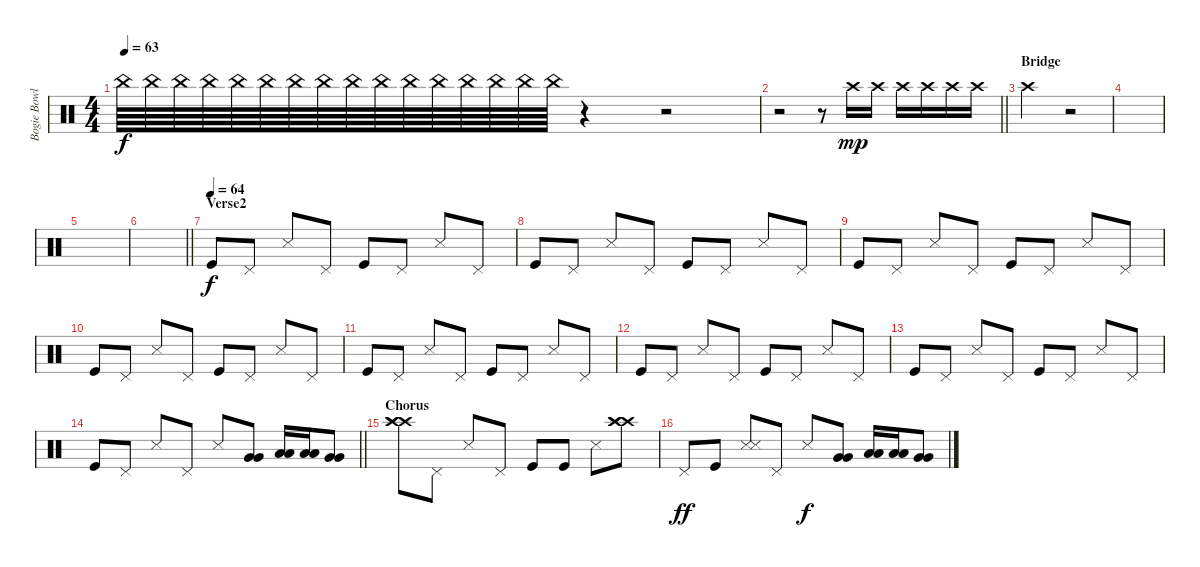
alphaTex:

\track ("Bogie Bowles - Drums" "Bogie Bowl") {instrument percussion}
\staff {score}
\articulation defaults
\ts (4 4)
\tempo 63
\clef neutral
\ks c "China (hit)".64{dy f} "China (hit)".64 "China (hit)".64 "China (hit)".64 "China (hit)".64 "China (hit)".64 "China (hit)".64 "China (hit)".64 "China (hit)".64{volume 0} "China (hit)".64 "China (hit)".64 "China (hit)".64 "China (hit)".64 "China (hit)".64 "China (hit)".64 "China (hit)".64
r.4 r.2 |
\barLineRight lightlight
r.2{volume 0} r.8{volume 13} "Crash high (hit)".16{dy mp} "Crash high (hit)".16 "Crash high (hit)".16 "Crash high (hit)".16 "Crash high (hit)".16 "Crash high (hit)".16 |
\section ("" "Bridge")
"Crash high (hit)".2 r.2 |
|
|
\barLineRight lightlight
|
\section ("" "Verse2")
\tempo (64)
"Kick (hit)".8{dy f} "Pedal Hi-Hat (hit)".8 "Snare (side stick) 3".8 "Pedal Hi-Hat (hit)".8 "Kick (hit)".8 "Pedal Hi-Hat (hit)".8 "Snare (side stick) 3".8 "Pedal Hi-Hat (hit)".8 |
"Kick (hit)".8 "Pedal Hi-Hat (hit)".8 "Snare (side stick) 3".8 "Pedal Hi-Hat (hit)".8 "Kick (hit)".8 "Pedal Hi-Hat (hit)".8 "Snare (side stick) 3".8 "Pedal Hi-Hat (hit)".8 |
"Kick (hit)".8 "Pedal Hi-Hat (hit)".8 "Snare (side stick) 3".8 "Pedal Hi-Hat (hit)".8 "Kick (hit)".8 "Pedal Hi-Hat (hit)".8 "Snare (side stick) 3".8 "Pedal Hi-Hat (hit)".8 |
"Kick (hit)".8 "Pedal Hi-Hat (hit)".8 "Snare (side stick) 3".8 "Pedal Hi-Hat (hit)".8 "Kick (hit)".8 "Pedal Hi-Hat (hit)".8 "Snare (side stick) 3".8 "Pedal Hi-Hat (hit)".8 |
"Kick (hit)".8 "Pedal Hi-Hat (hit)".8 "Snare (side stick) 3".8 "Pedal Hi-Hat (hit)".8 "Kick (hit)".8 "Pedal Hi-Hat (hit)".8 "Snare (side stick) 3".8 "Pedal Hi-Hat (hit)".8 |
"Kick (hit)".8 "Pedal Hi-Hat (hit)".8 "Snare (side stick) 3".8 "Pedal Hi-Hat (hit)".8 "Kick (hit)".8 "Pedal Hi-Hat (hit)".8 "Snare (side stick) 3".8 "Pedal Hi-Hat (hit)".8 |
"Kick (hit)".8 "Pedal Hi-Hat (hit)".8 "Snare (side stick) 3".8 "Pedal Hi-Hat (hit)".8 "Kick (hit)".8 "Pedal Hi-Hat (hit)".8 "Snare (side stick) 3".8 "Pedal Hi-Hat (hit)".8 |
\barLineRight lightlight "Kick (hit)".8 "Pedal Hi-Hat (hit)".8 "Snare (side stick) 3".8 "Pedal Hi-Hat (hit)".8 "Snare (side stick) 3".8
("Very Low Tom (hit)" "Very Low Tom (hit)").8 ("Low Floor Tom (hit)" "Low Floor Tom (hit)").16 ("Low Floor Tom (hit)" "Low Floor Tom (hit)").16 ("Very Low Tom (hit)" "Very Low Tom (hit)").8 |
\section ("" "Chorus")
("Crash high (hit)" "Crash high (hit)" "Crash high (hit)").8 "Pedal Hi-Hat (hit)".8 "Snare (side stick) 3".8 "Pedal Hi-Hat (hit)".8 "Kick (hit)".8 "Kick (hit)".8 "Snare (side stick) 3".8 ("Crash high (hit)" "Crash high (hit)" "Crash high (hit)").8 |
"Pedal Hi-Hat (hit)".8{dy ff} "Kick (hit)".8 ("Snare (side stick) 3" "Snare (side stick) 3").8 "Pedal Hi-Hat (hit)".8 "Snare (side stick) 3".8{dy f} ("Very Low Tom (hit)" "Very Low Tom (hit)").8 ("Low Floor Tom (hit)" "Low Floor Tom (hit)").16 ("Low Floor Tom (hit)" "Low Floor Tom (hit)").16 ("Very Low Tom (hit)" "Very Low Tom (hit)").8
